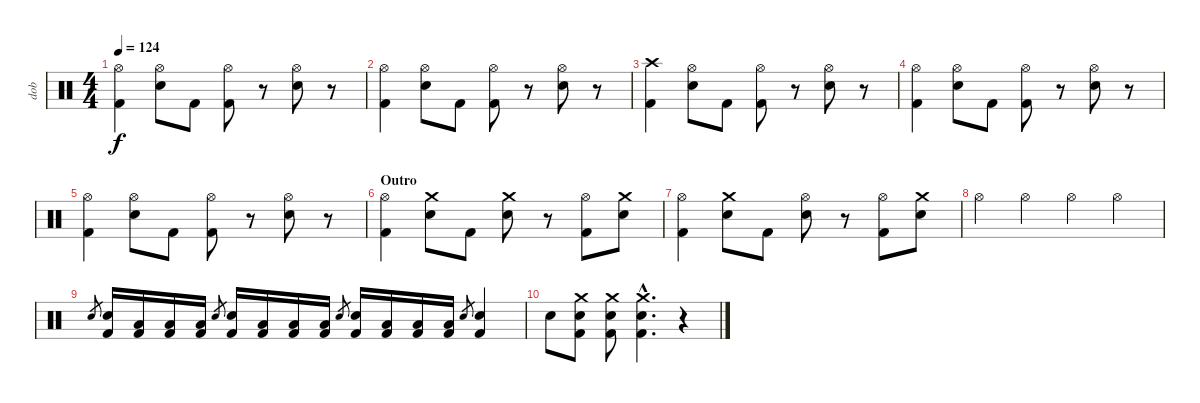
\track ("dob" "dob") {instrument percussion}
\staff {score}
\articulation defaults
\ts (4 4)
\tempo 124
\clef neutral
\ks c
("Hi-Hat (open)" "Kick (hit) 2").4{dy f} ("Hi-Hat (open)" "Electric Snare (hit)").8 "Kick (hit) 2".8 ("Hi-Hat (open)" "Kick (hit) 2").8 r.8 ("Hi-Hat (open)" "Electric Snare (hit)").8 r.8 |
("Hi-Hat (open)" "Kick (hit) 2").4 ("Hi-Hat (open)" "Electric Snare (hit)").8 "Kick (hit) 2".8 ("Hi-Hat (open)" "Kick (hit) 2").8 r.8 ("Hi-Hat (open)" "Electric Snare (hit)").8 r.8 |
("Crash high (hit)" "Kick (hit) 2").4 ("Hi-Hat (open)" "Electric Snare (hit)").8 "Kick (hit) 2".8 ("Hi-Hat (open)" "Kick (hit) 2").8 r.8 ("Hi-Hat (open)" "Electric Snare (hit)").8 r.8 |
("Hi-Hat (open)" "Kick (hit) 2").4 ("Hi-Hat (open)" "Electric Snare (hit)").8 "Kick (hit) 2".8 ("Hi-Hat (open)" "Kick (hit) 2").8 r.8 ("Hi-Hat (open)" "Electric Snare (hit)").8 r.8 |
("Hi-Hat (open)" "Kick (hit) 2").4 ("Hi-Hat (open)" "Electric Snare (hit)").8 "Kick (hit) 2".8 ("Hi-Hat (open)" "Kick (hit) 2").8 r.8 ("Hi-Hat (open)" "Electric Snare (hit)").8 r.8 |
\section ("" "Outro")
("Hi-Hat (open)" "Kick (hit) 2").4 ("Crash medium (hit)" "Electric Snare (hit)").8 "Kick (hit) 2".8 ("Crash medium (hit)" "Electric Snare (hit)").8 r.8 ("Hi-Hat (open)" "Kick (hit) 2").8 ("Crash medium (hit)" "Electric Snare (hit)").8 |
("Hi-Hat (open)" "Kick (hit) 2").4 ("Crash medium (hit)" "Electric Snare (hit)").8 "Kick (hit) 2".8 ("Hi-Hat (open)" "Electric Snare (hit)").8 r.8 ("Hi-Hat (open)" "Kick (hit) 2").8 ("Crash medium (hit)" "Electric Snare (hit)").8 |
"Hi-Hat (open)".4 "Hi-Hat (open)".4 "Hi-Hat (open)".4 "Hi-Hat (open)".4 |
"Electric Snare (hit)".8{gr} ("Electric Snare (hit)" "Kick (hit) 2").16 ("Low Tom (hit)" "Kick (hit) 2").16 ("Low Tom (hit)" "Kick (hit) 2").16 ("Low Tom (hit)" "Kick (hit) 2").16 "Electric Snare (hit)".8{gr} ("Electric Snare (hit)" "Kick (hit) 2").16 ("Low Tom (hit)" "Kick (hit) 2").16 ("Low Tom (hit)" "Kick (hit) 2").16 ("Low Tom (hit)" "Kick (hit) 2").16 "Electric Snare (hit)".8{gr} ("Electric Snare (hit)" "Kick (hit) 2").16 ("Low Tom (hit)" "Kick (hit) 2").16 ("Low Tom (hit)" "Kick (hit) 2").16 ("Low Tom (hit)" "Kick (hit) 2").16 "Electric Snare (hit)".8{gr} ("Electric Snare (hit)" "Kick (hit) 2").4 |
"Electric Snare (hit)".8 ("Crash medium (hit)" "Kick (hit) 2" "Electric Snare (hit)").8 ("Crash medium (hit)" "Kick (hit) 2" "Electric Snare (hit)").8 ("Crash medium (hit)"{hac} "Kick (hit) 2"{hac} "Electric Snare (hit)"{hac}).4{d} r.4
